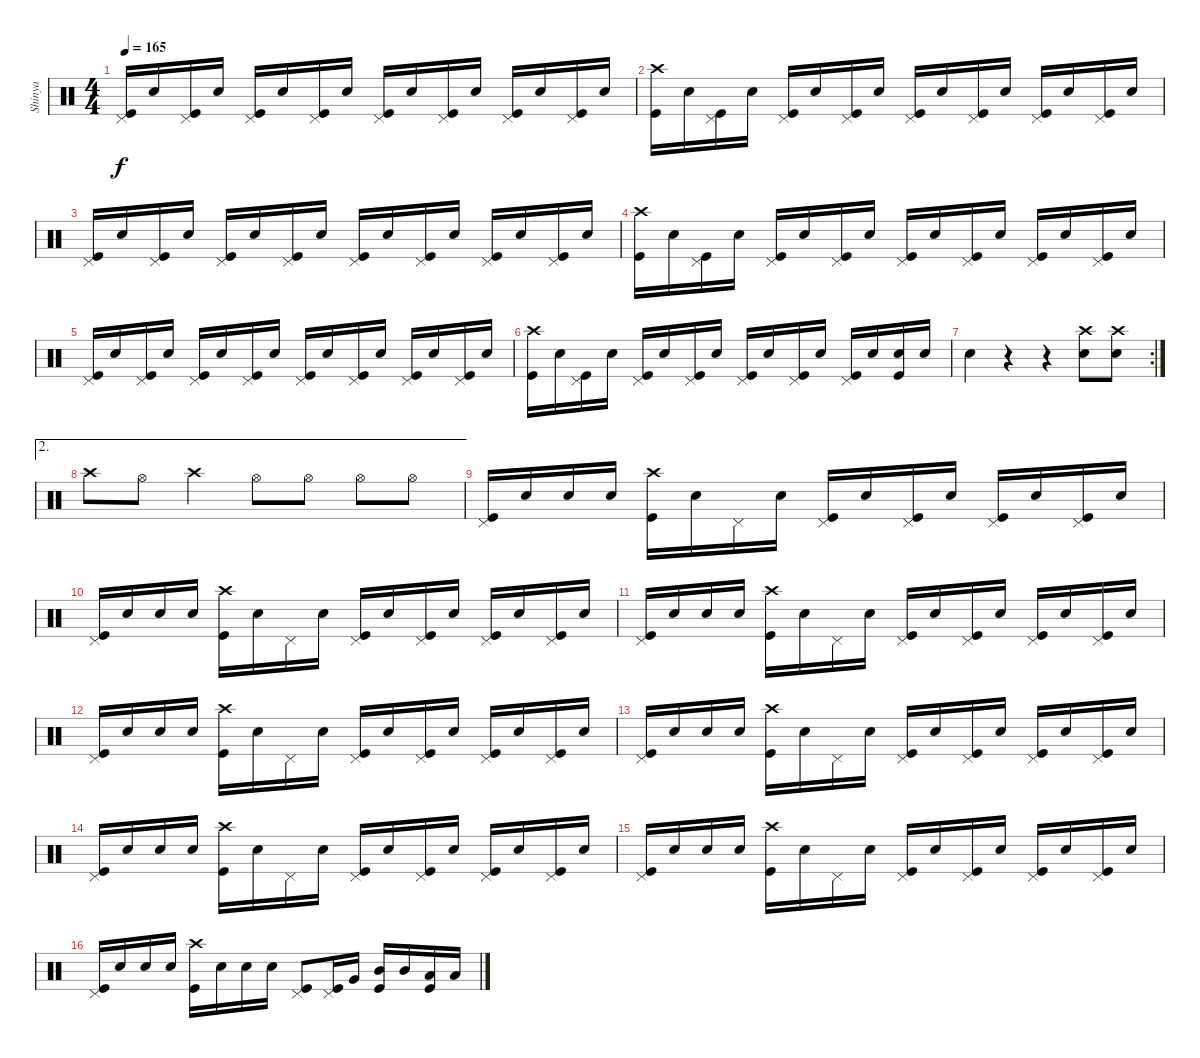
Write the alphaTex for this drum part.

\track ("Shinya" "Shinya") {instrument percussion}
\staff {score}
\articulation defaults
\ts (4 4)
\tempo 165
\clef neutral
\ks c
("Pedal Hi-Hat (hit)" "Kick (hit)").16{dy f} "Electric Snare (hit)".16 ("Kick (hit)" "Pedal Hi-Hat (hit)").16 "Electric Snare (hit)".16 ("Pedal Hi-Hat (hit)" "Kick (hit)").16 "Electric Snare (hit)".16 ("Pedal Hi-Hat (hit)" "Kick (hit)").16 "Electric Snare (hit)".16 ("Pedal Hi-Hat (hit)" "Kick (hit)").16 "Electric Snare (hit)".16 ("Kick (hit)" "Pedal Hi-Hat (hit)").16 "Electric Snare (hit)".16 ("Pedal Hi-Hat (hit)" "Kick (hit)").16 "Electric Snare (hit)".16 ("Kick (hit)" "Pedal Hi-Hat (hit)").16 "Electric Snare (hit)".16 |
("Crash high (hit)" "Kick (hit)").16 "Electric Snare (hit)".16 ("Kick (hit)" "Pedal Hi-Hat (hit)").16 "Electric Snare (hit)".16 ("Pedal Hi-Hat (hit)" "Kick (hit)").16 "Electric Snare (hit)".16 ("Pedal Hi-Hat (hit)" "Kick (hit)").16 "Electric Snare (hit)".16 ("Pedal Hi-Hat (hit)" "Kick (hit)").16 "Electric Snare (hit)".16 ("Kick (hit)" "Pedal Hi-Hat (hit)").16 "Electric Snare (hit)".16 ("Pedal Hi-Hat (hit)" "Kick (hit)").16 "Electric Snare (hit)".16 ("Kick (hit)" "Pedal Hi-Hat (hit)").16 "Electric Snare (hit)".16 |
("Pedal Hi-Hat (hit)" "Kick (hit)").16 "Electric Snare (hit)".16 ("Kick (hit)" "Pedal Hi-Hat (hit)").16 "Electric Snare (hit)".16 ("Pedal Hi-Hat (hit)" "Kick (hit)").16 "Electric Snare (hit)".16 ("Pedal Hi-Hat (hit)" "Kick (hit)").16 "Electric Snare (hit)".16 ("Pedal Hi-Hat (hit)" "Kick (hit)").16 "Electric Snare (hit)".16 ("Kick (hit)" "Pedal Hi-Hat (hit)").16 "Electric Snare (hit)".16 ("Pedal Hi-Hat (hit)" "Kick (hit)").16 "Electric Snare (hit)".16 ("Kick (hit)" "Pedal Hi-Hat (hit)").16 "Electric Snare (hit)".16 |
("Crash high (hit)" "Kick (hit)").16 "Electric Snare (hit)".16 ("Kick (hit)" "Pedal Hi-Hat (hit)").16 "Electric Snare (hit)".16 ("Pedal Hi-Hat (hit)" "Kick (hit)").16 "Electric Snare (hit)".16 ("Pedal Hi-Hat (hit)" "Kick (hit)").16 "Electric Snare (hit)".16 ("Pedal Hi-Hat (hit)" "Kick (hit)").16 "Electric Snare (hit)".16 ("Kick (hit)" "Pedal Hi-Hat (hit)").16 "Electric Snare (hit)".16 ("Pedal Hi-Hat (hit)" "Kick (hit)").16 "Electric Snare (hit)".16 ("Kick (hit)" "Pedal Hi-Hat (hit)").16 "Electric Snare (hit)".16 |
("Pedal Hi-Hat (hit)" "Kick (hit)").16 "Electric Snare (hit)".16 ("Kick (hit)" "Pedal Hi-Hat (hit)").16 "Electric Snare (hit)".16 ("Pedal Hi-Hat (hit)" "Kick (hit)").16 "Electric Snare (hit)".16 ("Pedal Hi-Hat (hit)" "Kick (hit)").16 "Electric Snare (hit)".16 ("Pedal Hi-Hat (hit)" "Kick (hit)").16 "Electric Snare (hit)".16 ("Kick (hit)" "Pedal Hi-Hat (hit)").16 "Electric Snare (hit)".16 ("Pedal Hi-Hat (hit)" "Kick (hit)").16 "Electric Snare (hit)".16 ("Kick (hit)" "Pedal Hi-Hat (hit)").16 "Electric Snare (hit)".16 |
("Crash high (hit)" "Kick (hit)").16 "Electric Snare (hit)".16 ("Pedal Hi-Hat (hit)" "Kick (hit)").16 "Electric Snare (hit)".16 ("Kick (hit)" "Pedal Hi-Hat (hit)").16 "Electric Snare (hit)".16 ("Pedal Hi-Hat (hit)" "Kick (hit)").16 "Electric Snare (hit)".16 ("Pedal Hi-Hat (hit)" "Kick (hit)").16 "Electric Snare (hit)".16 ("Kick (hit)" "Pedal Hi-Hat (hit)").16 "Electric Snare (hit)".16 ("Kick (hit)" "Pedal Hi-Hat (hit)").16 "Electric Snare (hit)".16 ("Electric Snare (hit)" "Kick (hit)").16 "Electric Snare (hit)".16 |
\rc 2 "Electric Snare (hit)".4
r.4 r.4 ("Crash high (hit)" "Electric Snare (hit)").8 ("Crash high (hit)" "Electric Snare (hit)").8 |
\ae 2 "Crash high (hit)".8 "Hi-Hat (open)".8 "Crash high (hit)".4 "Hi-Hat (open)".8 "Hi-Hat (open)".8 "Hi-Hat (open)".8 "Hi-Hat (open)".8
|
("Pedal Hi-Hat (hit)" "Kick (hit)").16 "Electric Snare (hit)".16 "Electric Snare (hit)".16 "Electric Snare (hit)".16 ("Crash high (hit)" "Kick (hit)").16 "Electric Snare (hit)".16 "Pedal Hi-Hat (hit)".16 "Electric Snare (hit)".16 ("Kick (hit)" "Pedal Hi-Hat (hit)").16 "Electric Snare (hit)".16 ("Kick (hit)" "Pedal Hi-Hat (hit)").16 "Electric Snare (hit)".16 ("Pedal Hi-Hat (hit)" "Kick (hit)").16 "Electric Snare (hit)".16 ("Pedal Hi-Hat (hit)" "Kick (hit)").16 "Electric Snare (hit)".16 |
("Pedal Hi-Hat (hit)" "Kick (hit)").16 "Electric Snare (hit)".16 "Electric Snare (hit)".16 "Electric Snare (hit)".16 ("Crash high (hit)" "Kick (hit)").16 "Electric Snare (hit)".16 "Pedal Hi-Hat (hit)".16 "Electric Snare (hit)".16 ("Kick (hit)" "Pedal Hi-Hat (hit)").16 "Electric Snare (hit)".16 ("Kick (hit)" "Pedal Hi-Hat (hit)").16 "Electric Snare (hit)".16 ("Pedal Hi-Hat (hit)" "Kick (hit)").16 "Electric Snare (hit)".16 ("Pedal Hi-Hat (hit)" "Kick (hit)").16 "Electric Snare (hit)".16 |
("Pedal Hi-Hat (hit)" "Kick (hit)").16 "Electric Snare (hit)".16 "Electric Snare (hit)".16 "Electric Snare (hit)".16 ("Crash high (hit)" "Kick (hit)").16 "Electric Snare (hit)".16 "Pedal Hi-Hat (hit)".16 "Electric Snare (hit)".16 ("Kick (hit)" "Pedal Hi-Hat (hit)").16 "Electric Snare (hit)".16 ("Kick (hit)" "Pedal Hi-Hat (hit)").16 "Electric Snare (hit)".16 ("Pedal Hi-Hat (hit)" "Kick (hit)").16 "Electric Snare (hit)".16 ("Pedal Hi-Hat (hit)" "Kick (hit)").16 "Electric Snare (hit)".16 |
("Pedal Hi-Hat (hit)" "Kick (hit)").16 "Electric Snare (hit)".16 "Electric Snare (hit)".16 "Electric Snare (hit)".16 ("Crash high (hit)" "Kick (hit)").16 "Electric Snare (hit)".16 "Pedal Hi-Hat (hit)".16 "Electric Snare (hit)".16 ("Kick (hit)" "Pedal Hi-Hat (hit)").16 "Electric Snare (hit)".16 ("Kick (hit)" "Pedal Hi-Hat (hit)").16 "Electric Snare (hit)".16 ("Pedal Hi-Hat (hit)" "Kick (hit)").16 "Electric Snare (hit)".16 ("Pedal Hi-Hat (hit)" "Kick (hit)").16 "Electric Snare (hit)".16 |
("Pedal Hi-Hat (hit)" "Kick (hit)").16 "Electric Snare (hit)".16 "Electric Snare (hit)".16 "Electric Snare (hit)".16 ("Crash high (hit)" "Kick (hit)").16 "Electric Snare (hit)".16 "Pedal Hi-Hat (hit)".16 "Electric Snare (hit)".16 ("Kick (hit)" "Pedal Hi-Hat (hit)").16 "Electric Snare (hit)".16 ("Kick (hit)" "Pedal Hi-Hat (hit)").16 "Electric Snare (hit)".16 ("Pedal Hi-Hat (hit)" "Kick (hit)").16 "Electric Snare (hit)".16 ("Pedal Hi-Hat (hit)" "Kick (hit)").16 "Electric Snare (hit)".16 |
("Pedal Hi-Hat (hit)" "Kick (hit)").16 "Electric Snare (hit)".16 "Electric Snare (hit)".16 "Electric Snare (hit)".16 ("Crash high (hit)" "Kick (hit)").16 "Electric Snare (hit)".16 "Pedal Hi-Hat (hit)".16 "Electric Snare (hit)".16 ("Kick (hit)" "Pedal Hi-Hat (hit)").16 "Electric Snare (hit)".16 ("Kick (hit)" "Pedal Hi-Hat (hit)").16 "Electric Snare (hit)".16 ("Pedal Hi-Hat (hit)" "Kick (hit)").16 "Electric Snare (hit)".16 ("Pedal Hi-Hat (hit)" "Kick (hit)").16 "Electric Snare (hit)".16 |
("Pedal Hi-Hat (hit)" "Kick (hit)").16 "Electric Snare (hit)".16 "Electric Snare (hit)".16 "Electric Snare (hit)".16 ("Crash high (hit)" "Kick (hit)").16 "Electric Snare (hit)".16 "Pedal Hi-Hat (hit)".16 "Electric Snare (hit)".16 ("Kick (hit)" "Pedal Hi-Hat (hit)").16 "Electric Snare (hit)".16 ("Kick (hit)" "Pedal Hi-Hat (hit)").16 "Electric Snare (hit)".16 ("Pedal Hi-Hat (hit)" "Kick (hit)").16 "Electric Snare (hit)".16 ("Pedal Hi-Hat (hit)" "Kick (hit)").16 "Electric Snare (hit)".16 |
("Pedal Hi-Hat (hit)" "Kick (hit)").16 "Electric Snare (hit)".16 "Electric Snare (hit)".16 "Electric Snare (hit)".16 ("Kick (hit)" "Crash high (hit)").16 "Electric Snare (hit)".16 "Electric Snare (hit)".16 "Electric Snare (hit)".16 ("Pedal Hi-Hat (hit)" "Kick (hit)").8 ("Pedal Hi-Hat (hit)" "Kick (hit)").16 "Very Low Tom (hit)".16 ("Mid Tom (hit)" "Kick (hit)").16 "Mid Tom (hit)".16 ("Low Floor Tom (hit)" "Kick (hit)").16 "Low Floor Tom (hit)".16
